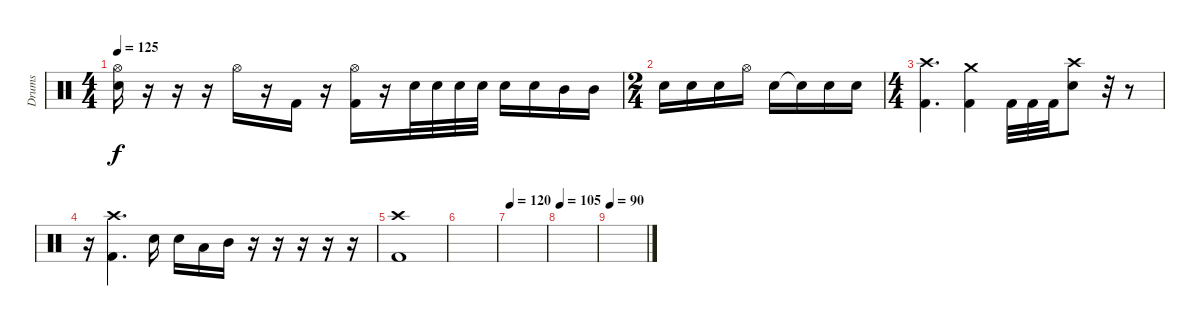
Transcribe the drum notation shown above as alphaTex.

\track ("Drums" "Drums") {instrument percussion}
\staff {score}
\articulation defaults
\ts (4 4)
\tempo 125
\clef neutral
\ks c
("Hi-Hat (open)" "Electric Snare (hit)").16{dy f} r.16 r.16 r.16 "Hi-Hat (open)".16 r.16 "Kick (hit) 2".16 r.16 ("Hi-Hat (open)" "Kick (hit) 2").16 r.16 "Electric Snare (hit)".32 "Electric Snare (hit)".32 "Electric Snare (hit)".32 "Electric Snare (hit)".32 "Electric Snare (hit)".16 "Electric Snare (hit)".16 "Mid Tom (hit)".16 "Mid Tom (hit)".16 |
\ts (2 4)
"Electric Snare (hit)".16 "Electric Snare (hit)".16 "Electric Snare (hit)".16 "Hi-Hat (open)".16 "Electric Snare (hit)".16 "Electric Snare (hit)"{t}.16 "Electric Snare (hit)".16 "Electric Snare (hit)".16 |
\ts (4 4)
("Crash high (hit)" "Kick (hit) 2").4{d} ("Crash medium (hit)" "Kick (hit) 2").4 "Kick (hit) 2".32 "Kick (hit) 2".32 "Kick (hit) 2".32 ("Crash high (hit)" "Electric Snare (hit)").8 r.32 r.8 |
r.16 ("Crash high (hit)" "Kick (hit) 2").4{d} "Electric Snare (hit)".16 "Electric Snare (hit)".16 "Low Tom (hit)".16 "Mid Tom (hit)".16 r.16 r.16 r.16 r.16 r.16 |
("Crash high (hit)" "Kick (hit) 2").1 |
|
\tempo 120
|
\tempo 105
|
\tempo 90
